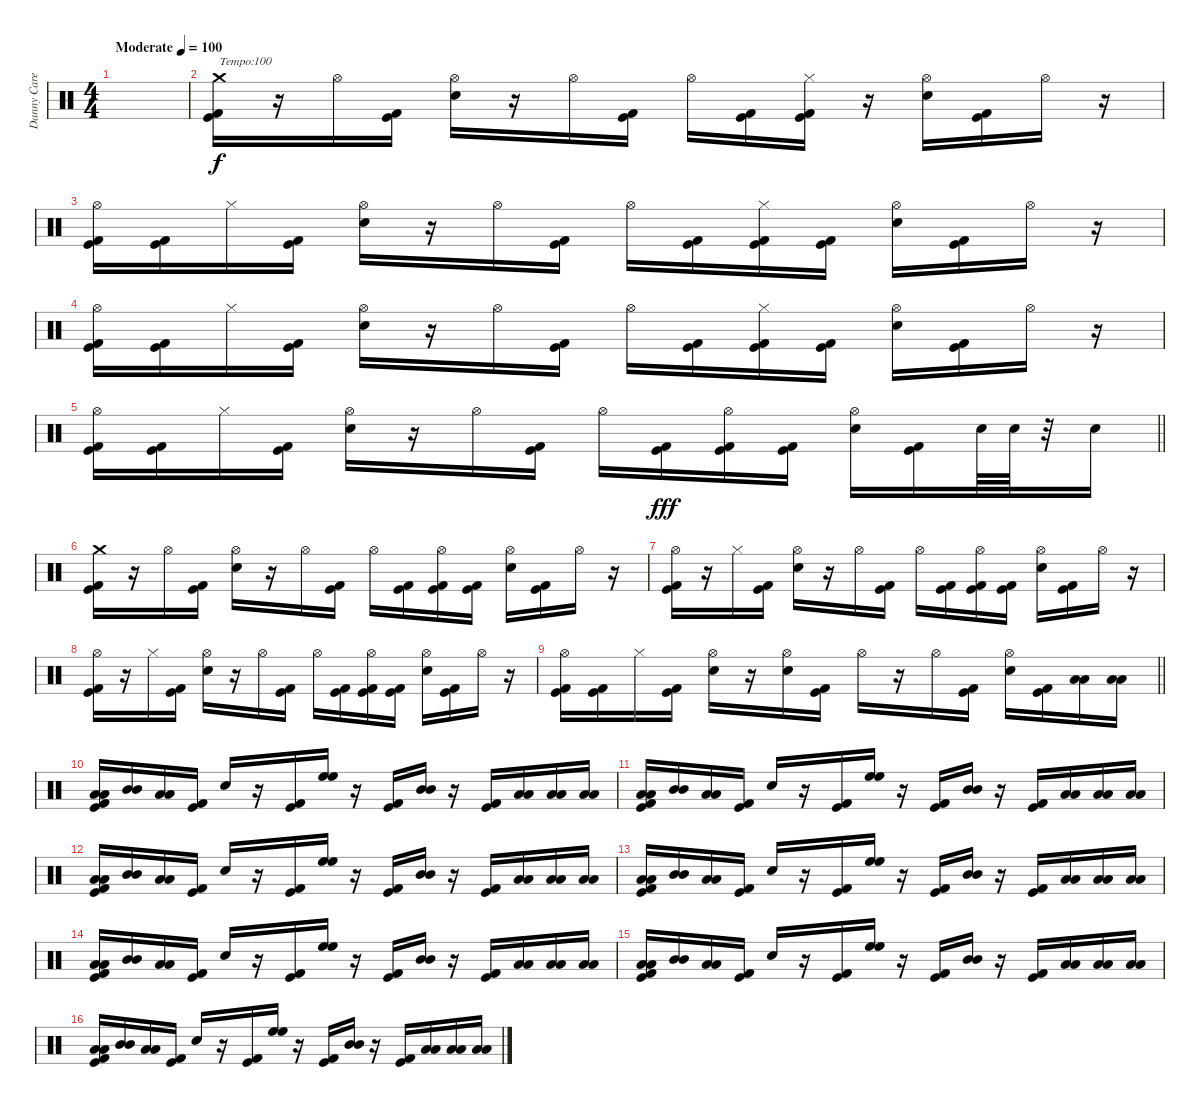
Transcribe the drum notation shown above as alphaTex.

\track ("Danny Carey" "Danny Care") {instrument percussion}
\staff {score}
\articulation defaults
\ts (4 4)
\tempo (100 "Moderate")
\clef neutral
\ks c
|
("Crash medium (hit)" "Kick (hit)" "Kick (hit) 2").16{txt "Tempo:100"} r.16 "Hi-Hat (open)".16 ("Kick (hit)" "Kick (hit) 2").16 ("Hi-Hat (open)" "Electric Snare (hit)").16 r.16 "Hi-Hat (open)".16 ("Kick (hit)" "Kick (hit) 2").16 "Hi-Hat (open)".16 ("Kick (hit)" "Kick (hit) 2").16 ("Hi-Hat (closed)" "Kick (hit)" "Kick (hit) 2").16 r.16 ("Hi-Hat (open)" "Electric Snare (hit)").16 ("Kick (hit)" "Kick (hit) 2").16 "Hi-Hat (open)".16 r.16 |
("Hi-Hat (open)" "Kick (hit)" "Kick (hit) 2").16 ("Kick (hit)" "Kick (hit) 2").16 "Hi-Hat (closed)".16 ("Kick (hit)" "Kick (hit) 2").16 ("Hi-Hat (open)" "Electric Snare (hit)").16 r.16 "Hi-Hat (open)".16 ("Kick (hit)" "Kick (hit) 2").16 "Hi-Hat (open)".16 ("Kick (hit)" "Kick (hit) 2").16 ("Hi-Hat (closed)" "Kick (hit)" "Kick (hit) 2").16 ("Kick (hit)" "Kick (hit) 2").16 ("Hi-Hat (open)" "Electric Snare (hit)").16 ("Kick (hit)" "Kick (hit) 2").16 "Hi-Hat (open)".16 r.16 |
("Hi-Hat (open)" "Kick (hit)" "Kick (hit) 2").16 ("Kick (hit)" "Kick (hit) 2").16 "Hi-Hat (closed)".16 ("Kick (hit)" "Kick (hit) 2").16 ("Hi-Hat (open)" "Electric Snare (hit)").16 r.16 "Hi-Hat (open)".16 ("Kick (hit)" "Kick (hit) 2").16 "Hi-Hat (open)".16 ("Kick (hit)" "Kick (hit) 2").16 ("Hi-Hat (closed)" "Kick (hit)" "Kick (hit) 2").16 ("Kick (hit)" "Kick (hit) 2").16 ("Hi-Hat (open)" "Electric Snare (hit)").16 ("Kick (hit)" "Kick (hit) 2").16 "Hi-Hat (open)".16 r.16 |
\barLineRight lightlight
("Hi-Hat (open)" "Kick (hit)" "Kick (hit) 2").16 ("Kick (hit)" "Kick (hit) 2").16 "Hi-Hat (closed)".16 ("Kick (hit)" "Kick (hit) 2").16 ("Hi-Hat (open)" "Electric Snare (hit)").16 r.16 "Hi-Hat (open)".16 ("Kick (hit)" "Kick (hit) 2").16 "Hi-Hat (open)".16{dy f} ("Kick (hit)" "Kick (hit) 2").16{dy fff} ("Hi-Hat (open)" "Kick (hit)" "Kick (hit) 2").16 ("Kick (hit)" "Kick (hit) 2").16 ("Hi-Hat (open)" "Electric Snare (hit)").16 ("Kick (hit)" "Kick (hit) 2").16 "Electric Snare (hit)".64 "Electric Snare (hit)".64 r.32 "Electric Snare (hit)".16 |
("Crash medium (hit)" "Kick (hit)" "Kick (hit) 2").16 r.16 "Hi-Hat (open)".16 ("Kick (hit)" "Kick (hit) 2").16 ("Hi-Hat (open)" "Electric Snare (hit)").16 r.16 "Hi-Hat (open)".16 ("Kick (hit)" "Kick (hit) 2").16 "Hi-Hat (open)".16 ("Kick (hit)" "Kick (hit) 2").16 ("Hi-Hat (open)" "Kick (hit)" "Kick (hit) 2").16 ("Kick (hit)" "Kick (hit) 2").16 ("Hi-Hat (open)" "Electric Snare (hit)").16 ("Kick (hit)" "Kick (hit) 2").16 "Hi-Hat (open)".16 r.16 |
("Hi-Hat (open)" "Kick (hit)" "Kick (hit) 2").16 r.16 "Hi-Hat (closed)".16 ("Kick (hit)" "Kick (hit) 2").16 ("Hi-Hat (open)" "Electric Snare (hit)").16 r.16 "Hi-Hat (open)".16 ("Kick (hit)" "Kick (hit) 2").16 "Hi-Hat (open)".16 ("Kick (hit)" "Kick (hit) 2").16 ("Hi-Hat (open)" "Kick (hit)" "Kick (hit) 2").16 ("Kick (hit)" "Kick (hit) 2").16 ("Hi-Hat (open)" "Electric Snare (hit)").16 ("Kick (hit)" "Kick (hit) 2").16 "Hi-Hat (open)".16 r.16 |
("Hi-Hat (open)" "Kick (hit)" "Kick (hit) 2").16 r.16 "Hi-Hat (closed)".16 ("Kick (hit)" "Kick (hit) 2").16 ("Hi-Hat (open)" "Electric Snare (hit)").16 r.16 "Hi-Hat (open)".16 ("Kick (hit)" "Kick (hit) 2").16 "Hi-Hat (open)".16 ("Kick (hit)" "Kick (hit) 2").16 ("Hi-Hat (open)" "Kick (hit)" "Kick (hit) 2").16 ("Kick (hit)" "Kick (hit) 2").16 ("Hi-Hat (open)" "Electric Snare (hit)").16 ("Kick (hit)" "Kick (hit) 2").16 "Hi-Hat (open)".16 r.16 |
\barLineRight lightlight
("Hi-Hat (open)" "Kick (hit)" "Kick (hit) 2").16 ("Kick (hit)" "Kick (hit) 2").16 "Hi-Hat (closed)".16 ("Kick (hit)" "Kick (hit) 2").16 ("Hi-Hat (open)" "Electric Snare (hit)").16 r.16 ("Hi-Hat (open)" "Electric Snare (hit)").16 ("Kick (hit)" "Kick (hit) 2").16 "Hi-Hat (open)".16 r.16 "Hi-Hat (open)".16 ("Kick (hit)" "Kick (hit) 2").16 ("Hi-Hat (open)" "Electric Snare (hit)").16 ("Kick (hit)" "Kick (hit) 2").16 ("Low Tom (hit)" "Low Tom (hit)").16 ("Low Tom (hit)" "Low Tom (hit)").16 |
("Low Tom (hit)" "Low Tom (hit)" "Kick (hit)" "Kick (hit) 2").16 ("Mid Tom (hit)" "Mid Tom (hit)").16 ("Low Floor Tom (hit)" "Low Floor Tom (hit)").16 ("Kick (hit)" "Kick (hit) 2").16 "Electric Snare (hit)".16 r.16 ("Kick (hit)" "Kick (hit) 2").16 ("High Floor Tom (hit)" "High Floor Tom (hit)").16 r.16 ("Kick (hit)" "Kick (hit) 2").16 ("Mid Tom (hit)" "Mid Tom (hit)").16 r.16 ("Kick (hit)" "Kick (hit) 2").16 ("Low Tom (hit)" "Low Tom (hit)").16 ("Low Tom (hit)" "Low Tom (hit)").16 ("Low Tom (hit)" "Low Tom (hit)").16 |
("Low Tom (hit)" "Low Tom (hit)" "Kick (hit)" "Kick (hit) 2").16 ("Mid Tom (hit)" "Mid Tom (hit)").16 ("Low Floor Tom (hit)" "Low Floor Tom (hit)").16 ("Kick (hit)" "Kick (hit) 2").16 "Electric Snare (hit)".16 r.16 ("Kick (hit)" "Kick (hit) 2").16 ("High Floor Tom (hit)" "High Floor Tom (hit)").16 r.16 ("Kick (hit)" "Kick (hit) 2").16 ("Mid Tom (hit)" "Mid Tom (hit)").16 r.16 ("Kick (hit)" "Kick (hit) 2").16 ("Low Tom (hit)" "Low Tom (hit)").16 ("Low Tom (hit)" "Low Tom (hit)").16 ("Low Tom (hit)" "Low Tom (hit)").16 |
("Low Tom (hit)" "Low Tom (hit)" "Kick (hit)" "Kick (hit) 2").16 ("Mid Tom (hit)" "Mid Tom (hit)").16 ("Low Floor Tom (hit)" "Low Floor Tom (hit)").16 ("Kick (hit)" "Kick (hit) 2").16 "Electric Snare (hit)".16 r.16 ("Kick (hit)" "Kick (hit) 2").16 ("High Floor Tom (hit)" "High Floor Tom (hit)").16 r.16 ("Kick (hit)" "Kick (hit) 2").16 ("Mid Tom (hit)" "Mid Tom (hit)").16 r.16 ("Kick (hit)" "Kick (hit) 2").16 ("Low Tom (hit)" "Low Tom (hit)").16 ("Low Tom (hit)" "Low Tom (hit)").16 ("Low Tom (hit)" "Low Tom (hit)").16 |
("Low Tom (hit)" "Low Tom (hit)" "Kick (hit)" "Kick (hit) 2").16 ("Mid Tom (hit)" "Mid Tom (hit)").16 ("Low Floor Tom (hit)" "Low Floor Tom (hit)").16 ("Kick (hit)" "Kick (hit) 2").16 "Electric Snare (hit)".16 r.16 ("Kick (hit)" "Kick (hit) 2").16 ("High Floor Tom (hit)" "High Floor Tom (hit)").16 r.16 ("Kick (hit)" "Kick (hit) 2").16 ("Mid Tom (hit)" "Mid Tom (hit)").16 r.16 ("Kick (hit)" "Kick (hit) 2").16 ("Low Tom (hit)" "Low Tom (hit)").16 ("Low Tom (hit)" "Low Tom (hit)").16 ("Low Tom (hit)" "Low Tom (hit)").16 |
("Low Tom (hit)" "Low Tom (hit)" "Kick (hit)" "Kick (hit) 2").16 ("Mid Tom (hit)" "Mid Tom (hit)").16 ("Low Floor Tom (hit)" "Low Floor Tom (hit)").16 ("Kick (hit)" "Kick (hit) 2").16 "Electric Snare (hit)".16 r.16 ("Kick (hit)" "Kick (hit) 2").16 ("High Floor Tom (hit)" "High Floor Tom (hit)").16 r.16 ("Kick (hit)" "Kick (hit) 2").16 ("Mid Tom (hit)" "Mid Tom (hit)").16 r.16 ("Kick (hit)" "Kick (hit) 2").16 ("Low Tom (hit)" "Low Tom (hit)").16 ("Low Tom (hit)" "Low Tom (hit)").16 ("Low Tom (hit)" "Low Tom (hit)").16 |
("Low Tom (hit)" "Low Tom (hit)" "Kick (hit)" "Kick (hit) 2").16 ("Mid Tom (hit)" "Mid Tom (hit)").16 ("Low Floor Tom (hit)" "Low Floor Tom (hit)").16 ("Kick (hit)" "Kick (hit) 2").16 "Electric Snare (hit)".16 r.16 ("Kick (hit)" "Kick (hit) 2").16 ("High Floor Tom (hit)" "High Floor Tom (hit)").16 r.16 ("Kick (hit)" "Kick (hit) 2").16 ("Mid Tom (hit)" "Mid Tom (hit)").16 r.16 ("Kick (hit)" "Kick (hit) 2").16 ("Low Tom (hit)" "Low Tom (hit)").16 ("Low Tom (hit)" "Low Tom (hit)").16 ("Low Tom (hit)" "Low Tom (hit)").16 |
("Low Tom (hit)" "Low Tom (hit)" "Kick (hit)" "Kick (hit) 2").16 ("Mid Tom (hit)" "Mid Tom (hit)").16 ("Low Floor Tom (hit)" "Low Floor Tom (hit)").16 ("Kick (hit)" "Kick (hit) 2").16 "Electric Snare (hit)".16 r.16 ("Kick (hit)" "Kick (hit) 2").16 ("High Floor Tom (hit)" "High Floor Tom (hit)").16 r.16 ("Kick (hit)" "Kick (hit) 2").16 ("Mid Tom (hit)" "Mid Tom (hit)").16 r.16 ("Kick (hit)" "Kick (hit) 2").16 ("Low Tom (hit)" "Low Tom (hit)").16 ("Low Tom (hit)" "Low Tom (hit)").16 ("Low Tom (hit)" "Low Tom (hit)").16
